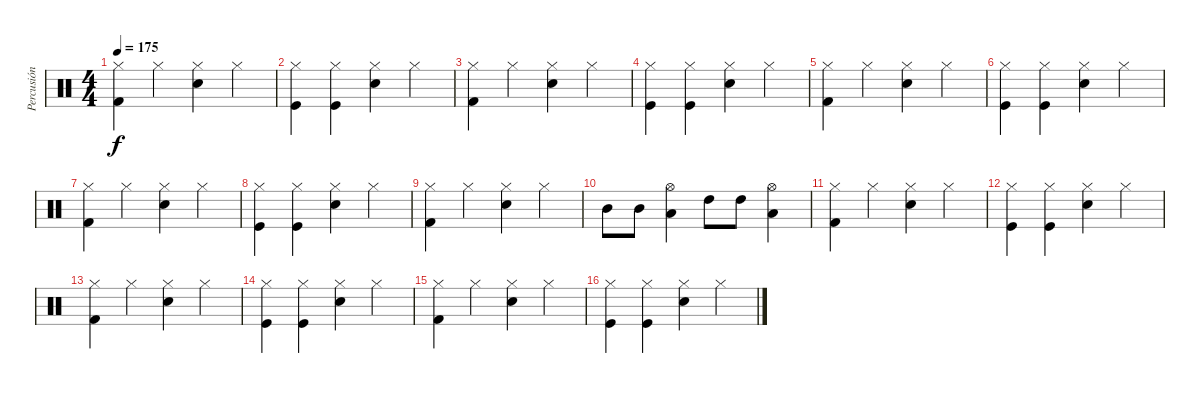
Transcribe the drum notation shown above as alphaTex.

\track ("Percusión" "Percusión") {instrument percussion}
\staff {score}
\articulation defaults
\ts (4 4)
\tempo 175
\clef neutral
\ks c
("Hi-Hat (closed)" "Kick (hit) 2").4{dy f} "Hi-Hat (closed)".4 ("Snare (hit) 2" "Hi-Hat (closed)").4 "Hi-Hat (closed)".4 |
("Kick (hit)" "Hi-Hat (closed)").4 ("Kick (hit)" "Hi-Hat (closed)").4 ("Electric Snare (hit)" "Hi-Hat (closed)").4 "Hi-Hat (closed)".4 |
("Hi-Hat (closed)" "Kick (hit) 2").4 "Hi-Hat (closed)".4 ("Snare (hit) 2" "Hi-Hat (closed)").4 "Hi-Hat (closed)".4 |
("Kick (hit)" "Hi-Hat (closed)").4 ("Kick (hit)" "Hi-Hat (closed)").4 ("Electric Snare (hit)" "Hi-Hat (closed)").4 "Hi-Hat (closed)".4 |
("Hi-Hat (closed)" "Kick (hit) 2").4 "Hi-Hat (closed)".4 ("Snare (hit) 2" "Hi-Hat (closed)").4 "Hi-Hat (closed)".4 |
("Kick (hit)" "Hi-Hat (closed)").4 ("Kick (hit)" "Hi-Hat (closed)").4 ("Electric Snare (hit)" "Hi-Hat (closed)").4 "Hi-Hat (closed)".4 |
("Hi-Hat (closed)" "Kick (hit) 2").4 "Hi-Hat (closed)".4 ("Snare (hit) 2" "Hi-Hat (closed)").4 "Hi-Hat (closed)".4 |
("Kick (hit)" "Hi-Hat (closed)").4 ("Kick (hit)" "Hi-Hat (closed)").4 ("Electric Snare (hit)" "Hi-Hat (closed)").4 "Hi-Hat (closed)".4 |
("Hi-Hat (closed)" "Kick (hit) 2").4 "Hi-Hat (closed)".4 ("Snare (hit) 2" "Hi-Hat (closed)").4 "Hi-Hat (closed)".4 |
"Mid Tom (hit)".8 "Mid Tom (hit)".8 ("Low Tom (hit)" "Hi-Hat (open)").4 "High Tom (hit)".8 "High Tom (hit)".8 ("Low Tom (hit)" "Hi-Hat (open)").4 |
("Hi-Hat (closed)" "Kick (hit) 2").4 "Hi-Hat (closed)".4 ("Snare (hit) 2" "Hi-Hat (closed)").4 "Hi-Hat (closed)".4 |
("Kick (hit)" "Hi-Hat (closed)").4 ("Kick (hit)" "Hi-Hat (closed)").4 ("Snare (hit) 2" "Hi-Hat (closed)").4 "Hi-Hat (closed)".4 |
("Hi-Hat (closed)" "Kick (hit) 2").4 "Hi-Hat (closed)".4 ("Snare (hit) 2" "Hi-Hat (closed)").4 "Hi-Hat (closed)".4 |
("Kick (hit)" "Hi-Hat (closed)").4 ("Kick (hit)" "Hi-Hat (closed)").4 ("Snare (hit) 2" "Hi-Hat (closed)").4 "Hi-Hat (closed)".4 |
("Hi-Hat (closed)" "Kick (hit) 2").4 "Hi-Hat (closed)".4 ("Snare (hit) 2" "Hi-Hat (closed)").4 "Hi-Hat (closed)".4 |
("Kick (hit)" "Hi-Hat (closed)").4 ("Kick (hit)" "Hi-Hat (closed)").4 ("Snare (hit) 2" "Hi-Hat (closed)").4 "Hi-Hat (closed)".4
